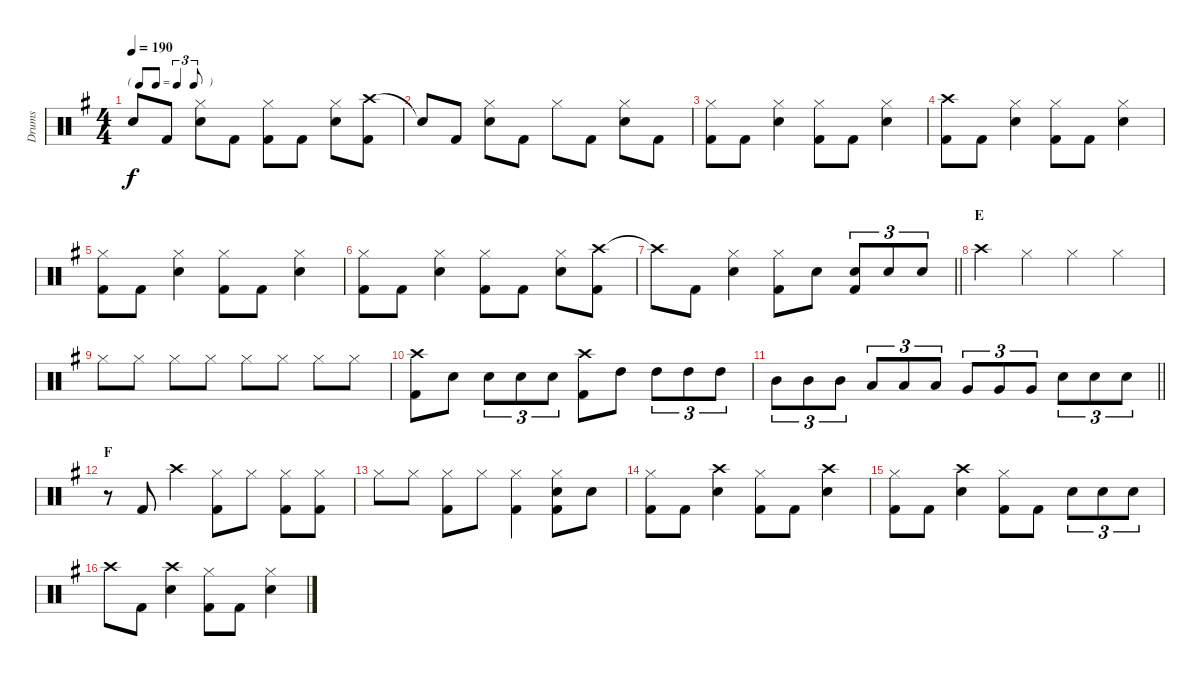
\track ("Drums" "Drums") {instrument percussion}
\staff {score}
\articulation defaults
\ts (4 4)
\tf triplet8th
\tempo 190
\clef neutral
\ks g "Snare (hit)"{t}.8{dy f} "Kick (hit) 2".8
("Hi-Hat (closed)" "Snare (hit) 2").8 "Kick (hit) 2".8 ("Hi-Hat (closed)" "Kick (hit) 2").8 "Kick (hit) 2".8 ("Hi-Hat (closed)" "Snare (hit) 2").8 ("Crash high (hit)" "Kick (hit) 2").8 |
"Snare (hit)"{t}.8 "Kick (hit) 2".8 ("Hi-Hat (closed)" "Snare (hit) 2").8 "Kick (hit) 2".8 "Hi-Hat (closed)".8 "Kick (hit) 2".8 ("Hi-Hat (closed)" "Snare (hit) 2").8 "Kick (hit) 2".8 |
("Hi-Hat (closed)" "Kick (hit) 2").8 "Kick (hit) 2".8 ("Hi-Hat (closed)" "Snare (hit) 2").4 ("Hi-Hat (closed)" "Kick (hit) 2").8 "Kick (hit) 2".8 ("Hi-Hat (closed)" "Snare (hit) 2").4 |
("Crash high (hit)" "Kick (hit) 2").8 "Kick (hit) 2".8 ("Hi-Hat (closed)" "Snare (hit) 2").4 ("Hi-Hat (closed)" "Kick (hit) 2").8 "Kick (hit) 2".8 ("Hi-Hat (closed)" "Snare (hit) 2").4 |
("Hi-Hat (closed)" "Kick (hit) 2").8 "Kick (hit) 2".8 ("Hi-Hat (closed)" "Snare (hit) 2").4 ("Hi-Hat (closed)" "Kick (hit) 2").8 "Kick (hit) 2".8 ("Hi-Hat (closed)" "Snare (hit) 2").4 |
("Hi-Hat (closed)" "Kick (hit) 2").8 "Kick (hit) 2".8 ("Hi-Hat (closed)" "Snare (hit) 2").4 ("Hi-Hat (closed)" "Kick (hit) 2").8 "Kick (hit) 2".8 ("Hi-Hat (closed)" "Snare (hit) 2").8 ("Crash high (hit)" "Kick (hit) 2").8 |
\barLineRight lightlight "Crash high (hit)"{t}.8 "Kick (hit) 2".8
("Hi-Hat (closed)" "Snare (hit) 2").4 ("Hi-Hat (closed)" "Kick (hit) 2").8 "Snare (hit) 2".8 ("Snare (hit) 2" "Kick (hit) 2").8{tu (3 2)} "Snare (hit) 2".8{tu (3 2)} "Snare (hit) 2".8{tu (3 2)} |
\section ("" "E")
"Crash high (hit)".4 "Hi-Hat (closed)".4 "Hi-Hat (closed)".4 "Hi-Hat (closed)".4 |
"Hi-Hat (closed)".8 "Hi-Hat (closed)".8 "Hi-Hat (closed)".8 "Hi-Hat (closed)".8 "Hi-Hat (closed)".8 "Hi-Hat (closed)".8 "Hi-Hat (closed)".8 "Hi-Hat (closed)".8 |
("Crash high (hit)" "Kick (hit) 2").8 "Snare (hit) 2".8 "Snare (hit) 2".8{tu (3 2)} "Snare (hit) 2".8{tu (3 2)} "Snare (hit) 2".8{tu (3 2)} ("Crash high (hit)" "Kick (hit) 2").8 "High Tom (hit)".8 "High Tom (hit)".8{tu (3 2)} "High Tom (hit)".8{tu (3 2)} "High Tom (hit)".8{tu (3 2)} |
\barLineRight lightlight "Mid Tom (hit)".8{tu (3 2)} "Mid Tom (hit)".8{tu (3 2)} "Mid Tom (hit)".8{tu (3 2)} "Low Tom (hit)".8{tu (3 2)} "Low Tom (hit)".8{tu (3 2)} "Low Tom (hit)".8{tu (3 2)} "Very Low Tom (hit)".8{tu (3 2)} "Very Low Tom (hit)".8{tu (3 2)} "Very Low Tom (hit)".8{tu (3 2)} "Snare (hit) 2".8{tu (3 2)} "Snare (hit) 2".8{tu (3 2)} "Snare (hit) 2".8{tu (3 2)}
|
\section ("" "F")
r.8 "Kick (hit) 2".8 "Crash high (hit)".4 ("Hi-Hat (closed)" "Kick (hit) 2").8 "Hi-Hat (closed)".8 ("Hi-Hat (closed)" "Kick (hit) 2").8 ("Hi-Hat (closed)" "Kick (hit) 2").8 |
"Hi-Hat (closed)".8 "Hi-Hat (closed)".8 ("Hi-Hat (closed)" "Kick (hit) 2").8 "Hi-Hat (closed)".8 ("Hi-Hat (closed)" "Kick (hit) 2").4 ("Hi-Hat (closed)" "Snare (hit) 2" "Kick (hit) 2").8 "Snare (hit) 2".8 |
("Hi-Hat (closed)" "Kick (hit) 2").8 "Kick (hit) 2".8 ("Crash high (hit)" "Snare (hit) 2").4 ("Hi-Hat (closed)" "Kick (hit) 2").8 "Kick (hit) 2".8 ("Crash high (hit)" "Snare (hit) 2").4 |
("Hi-Hat (closed)" "Kick (hit) 2").8 "Kick (hit) 2".8 ("Crash high (hit)" "Snare (hit) 2").4 ("Hi-Hat (closed)" "Kick (hit) 2").8 "Kick (hit) 2".8 "Snare (hit) 2".8{tu (3 2)} "Snare (hit) 2".8{tu (3 2)} "Snare (hit) 2".8{tu (3 2)} |
"Crash high (hit)".8 "Kick (hit) 2".8 ("Crash high (hit)" "Snare (hit) 2").4 ("Hi-Hat (closed)" "Kick (hit) 2").8 "Kick (hit) 2".8 ("Hi-Hat (closed)" "Snare (hit) 2").4
